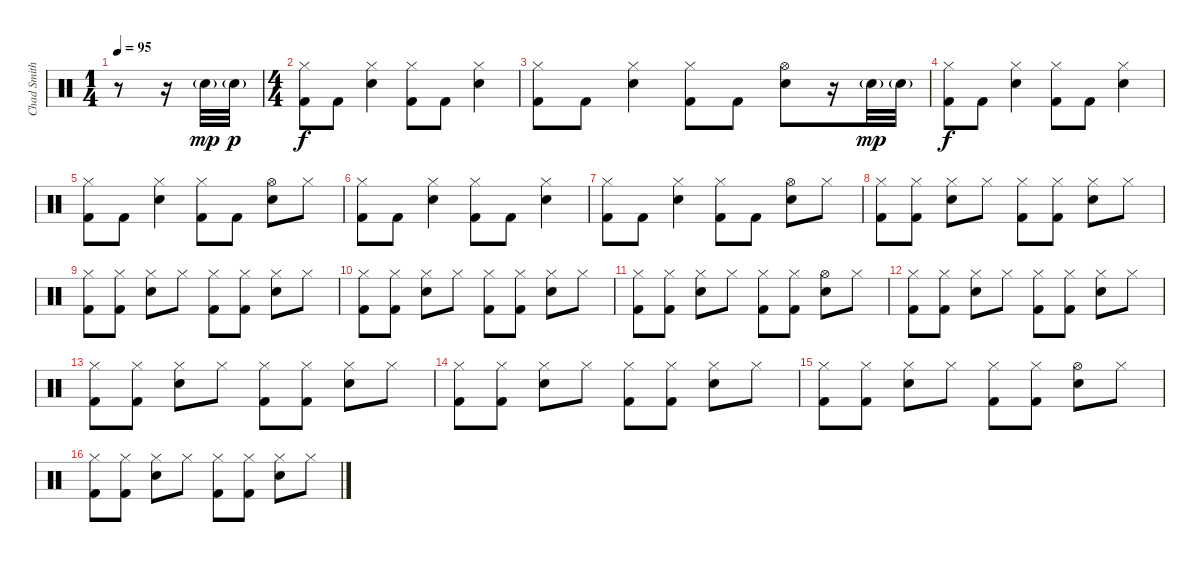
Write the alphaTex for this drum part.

\track ("Chad Smith" "Chad Smith") {instrument percussion}
\staff {score}
\articulation defaults
\ts (1 4)
\tempo 95
\clef neutral
\ks c
r.8{dy mp} r.16 "Snare (hit) 2"{g}.32 "Snare (hit) 2"{g}.32{dy p} |
\ts (4 4)
("Hi-Hat (closed)" "Kick (hit) 2").8{dy f} "Kick (hit) 2".8 ("Hi-Hat (closed)" "Snare (hit) 2").4 ("Hi-Hat (closed)" "Kick (hit) 2").8 "Kick (hit) 2".8 ("Hi-Hat (closed)" "Snare (hit) 2").4 |
("Hi-Hat (closed)" "Kick (hit) 2").8 "Kick (hit) 2".8 ("Hi-Hat (closed)" "Snare (hit) 2").4 ("Hi-Hat (closed)" "Kick (hit) 2").8 "Kick (hit) 2".8 ("Hi-Hat (open)" "Snare (hit) 2").8 r.16 "Snare (hit) 2"{g}.32{dy mp} "Snare (hit) 2"{g}.32 |
("Hi-Hat (closed)" "Kick (hit) 2").8{dy f} "Kick (hit) 2".8 ("Hi-Hat (closed)" "Snare (hit) 2").4 ("Hi-Hat (closed)" "Kick (hit) 2").8 "Kick (hit) 2".8 ("Hi-Hat (closed)" "Snare (hit) 2").4 |
("Hi-Hat (closed)" "Kick (hit) 2").8 "Kick (hit) 2".8 ("Hi-Hat (closed)" "Snare (hit) 2").4 ("Hi-Hat (closed)" "Kick (hit) 2").8 "Kick (hit) 2".8 ("Hi-Hat (open)" "Snare (hit) 2").8 "Hi-Hat (closed)".8 |
("Hi-Hat (closed)" "Kick (hit) 2").8 "Kick (hit) 2".8 ("Hi-Hat (closed)" "Snare (hit) 2").4 ("Hi-Hat (closed)" "Kick (hit) 2").8 "Kick (hit) 2".8 ("Hi-Hat (closed)" "Snare (hit) 2").4 |
("Hi-Hat (closed)" "Kick (hit) 2").8 "Kick (hit) 2".8 ("Hi-Hat (closed)" "Snare (hit) 2").4 ("Hi-Hat (closed)" "Kick (hit) 2").8 "Kick (hit) 2".8 ("Hi-Hat (open)" "Snare (hit) 2").8 "Hi-Hat (closed)".8 |
("Hi-Hat (closed)" "Kick (hit) 2").8 ("Hi-Hat (closed)" "Kick (hit) 2").8 ("Hi-Hat (closed)" "Snare (hit) 2").8 "Hi-Hat (closed)".8 ("Hi-Hat (closed)" "Kick (hit) 2").8 ("Hi-Hat (closed)" "Kick (hit) 2").8 ("Hi-Hat (closed)" "Snare (hit) 2").8 "Hi-Hat (closed)".8 |
("Hi-Hat (closed)" "Kick (hit) 2").8 ("Hi-Hat (closed)" "Kick (hit) 2").8 ("Hi-Hat (closed)" "Snare (hit) 2").8 "Hi-Hat (closed)".8 ("Hi-Hat (closed)" "Kick (hit) 2").8 ("Hi-Hat (closed)" "Kick (hit) 2").8 ("Hi-Hat (closed)" "Snare (hit) 2").8 "Hi-Hat (closed)".8 |
("Hi-Hat (closed)" "Kick (hit) 2").8 ("Hi-Hat (closed)" "Kick (hit) 2").8 ("Hi-Hat (closed)" "Snare (hit) 2").8 "Hi-Hat (closed)".8 ("Hi-Hat (closed)" "Kick (hit) 2").8 ("Hi-Hat (closed)" "Kick (hit) 2").8 ("Hi-Hat (closed)" "Snare (hit) 2").8 "Hi-Hat (closed)".8 |
("Hi-Hat (closed)" "Kick (hit) 2").8 ("Hi-Hat (closed)" "Kick (hit) 2").8 ("Hi-Hat (closed)" "Snare (hit) 2").8 "Hi-Hat (closed)".8 ("Hi-Hat (closed)" "Kick (hit) 2").8 ("Hi-Hat (closed)" "Kick (hit) 2").8 ("Hi-Hat (open)" "Snare (hit) 2").8 "Hi-Hat (closed)".8 |
("Hi-Hat (closed)" "Kick (hit) 2").8 ("Hi-Hat (closed)" "Kick (hit) 2").8 ("Hi-Hat (closed)" "Snare (hit) 2").8 "Hi-Hat (closed)".8 ("Hi-Hat (closed)" "Kick (hit) 2").8 ("Hi-Hat (closed)" "Kick (hit) 2").8 ("Hi-Hat (closed)" "Snare (hit) 2").8 "Hi-Hat (closed)".8 |
("Hi-Hat (closed)" "Kick (hit) 2").8 ("Hi-Hat (closed)" "Kick (hit) 2").8 ("Hi-Hat (closed)" "Snare (hit) 2").8 "Hi-Hat (closed)".8 ("Hi-Hat (closed)" "Kick (hit) 2").8 ("Hi-Hat (closed)" "Kick (hit) 2").8 ("Hi-Hat (closed)" "Snare (hit) 2").8 "Hi-Hat (closed)".8 |
("Hi-Hat (closed)" "Kick (hit) 2").8 ("Hi-Hat (closed)" "Kick (hit) 2").8 ("Hi-Hat (closed)" "Snare (hit) 2").8 "Hi-Hat (closed)".8 ("Hi-Hat (closed)" "Kick (hit) 2").8 ("Hi-Hat (closed)" "Kick (hit) 2").8 ("Hi-Hat (closed)" "Snare (hit) 2").8 "Hi-Hat (closed)".8 |
("Hi-Hat (closed)" "Kick (hit) 2").8 ("Hi-Hat (closed)" "Kick (hit) 2").8 ("Hi-Hat (closed)" "Snare (hit) 2").8 "Hi-Hat (closed)".8 ("Hi-Hat (closed)" "Kick (hit) 2").8 ("Hi-Hat (closed)" "Kick (hit) 2").8 ("Hi-Hat (open)" "Snare (hit) 2").8 "Hi-Hat (closed)".8 |
("Hi-Hat (closed)" "Kick (hit) 2").8 ("Hi-Hat (closed)" "Kick (hit) 2").8 ("Hi-Hat (closed)" "Snare (hit) 2").8 "Hi-Hat (closed)".8 ("Hi-Hat (closed)" "Kick (hit) 2").8 ("Hi-Hat (closed)" "Kick (hit) 2").8 ("Hi-Hat (closed)" "Snare (hit) 2").8 "Hi-Hat (closed)".8
